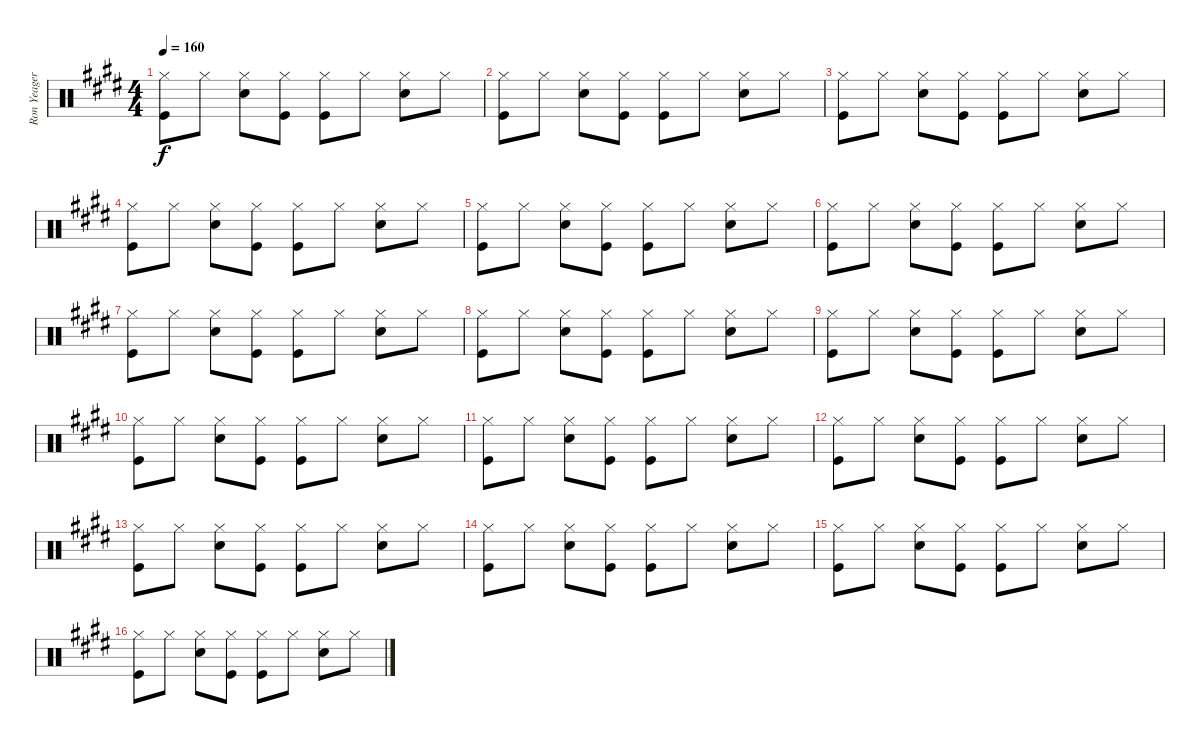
\track ("Ron Yeager Drums" "Ron Yeager") {instrument percussion}
\staff {score}
\articulation defaults
\ts (4 4)
\tempo 160
\clef neutral
\ks e
("Hi-Hat (closed)" "Kick (hit)").8{dy f} "Hi-Hat (closed)".8 ("Hi-Hat (closed)" "Snare (hit) 2").8 ("Hi-Hat (closed)" "Kick (hit)").8 ("Hi-Hat (closed)" "Kick (hit)").8 "Hi-Hat (closed)".8 ("Hi-Hat (closed)" "Snare (hit) 2").8 "Hi-Hat (closed)".8 |
("Hi-Hat (closed)" "Kick (hit)").8 "Hi-Hat (closed)".8 ("Hi-Hat (closed)" "Snare (hit) 2").8 ("Hi-Hat (closed)" "Kick (hit)").8 ("Hi-Hat (closed)" "Kick (hit)").8 "Hi-Hat (closed)".8 ("Hi-Hat (closed)" "Snare (hit) 2").8 "Hi-Hat (closed)".8 |
("Hi-Hat (closed)" "Kick (hit)").8 "Hi-Hat (closed)".8 ("Hi-Hat (closed)" "Snare (hit) 2").8 ("Hi-Hat (closed)" "Kick (hit)").8 ("Hi-Hat (closed)" "Kick (hit)").8 "Hi-Hat (closed)".8 ("Hi-Hat (closed)" "Snare (hit) 2").8 "Hi-Hat (closed)".8 |
("Hi-Hat (closed)" "Kick (hit)").8 "Hi-Hat (closed)".8 ("Hi-Hat (closed)" "Snare (hit) 2").8 ("Hi-Hat (closed)" "Kick (hit)").8 ("Hi-Hat (closed)" "Kick (hit)").8 "Hi-Hat (closed)".8 ("Hi-Hat (closed)" "Snare (hit) 2").8 "Hi-Hat (closed)".8 |
("Hi-Hat (closed)" "Kick (hit)").8 "Hi-Hat (closed)".8 ("Hi-Hat (closed)" "Snare (hit) 2").8 ("Hi-Hat (closed)" "Kick (hit)").8 ("Hi-Hat (closed)" "Kick (hit)").8 "Hi-Hat (closed)".8 ("Hi-Hat (closed)" "Snare (hit) 2").8 "Hi-Hat (closed)".8 |
("Hi-Hat (closed)" "Kick (hit)").8 "Hi-Hat (closed)".8 ("Hi-Hat (closed)" "Snare (hit) 2").8 ("Hi-Hat (closed)" "Kick (hit)").8 ("Hi-Hat (closed)" "Kick (hit)").8 "Hi-Hat (closed)".8 ("Hi-Hat (closed)" "Snare (hit) 2").8 "Hi-Hat (closed)".8 |
("Hi-Hat (closed)" "Kick (hit)").8 "Hi-Hat (closed)".8 ("Hi-Hat (closed)" "Snare (hit) 2").8 ("Hi-Hat (closed)" "Kick (hit)").8 ("Hi-Hat (closed)" "Kick (hit)").8 "Hi-Hat (closed)".8 ("Hi-Hat (closed)" "Snare (hit) 2").8 "Hi-Hat (closed)".8 |
("Hi-Hat (closed)" "Kick (hit)").8 "Hi-Hat (closed)".8 ("Hi-Hat (closed)" "Snare (hit) 2").8 ("Hi-Hat (closed)" "Kick (hit)").8 ("Hi-Hat (closed)" "Kick (hit)").8 "Hi-Hat (closed)".8 ("Hi-Hat (closed)" "Snare (hit) 2").8 "Hi-Hat (closed)".8 |
("Hi-Hat (closed)" "Kick (hit)").8 "Hi-Hat (closed)".8 ("Hi-Hat (closed)" "Snare (hit) 2").8 ("Hi-Hat (closed)" "Kick (hit)").8 ("Hi-Hat (closed)" "Kick (hit)").8 "Hi-Hat (closed)".8 ("Hi-Hat (closed)" "Snare (hit) 2").8 "Hi-Hat (closed)".8 |
("Hi-Hat (closed)" "Kick (hit)").8 "Hi-Hat (closed)".8 ("Hi-Hat (closed)" "Snare (hit) 2").8 ("Hi-Hat (closed)" "Kick (hit)").8 ("Hi-Hat (closed)" "Kick (hit)").8 "Hi-Hat (closed)".8 ("Hi-Hat (closed)" "Snare (hit) 2").8 "Hi-Hat (closed)".8 |
("Hi-Hat (closed)" "Kick (hit)").8 "Hi-Hat (closed)".8 ("Hi-Hat (closed)" "Snare (hit) 2").8 ("Hi-Hat (closed)" "Kick (hit)").8 ("Hi-Hat (closed)" "Kick (hit)").8 "Hi-Hat (closed)".8 ("Hi-Hat (closed)" "Snare (hit) 2").8 "Hi-Hat (closed)".8 |
("Hi-Hat (closed)" "Kick (hit)").8 "Hi-Hat (closed)".8 ("Hi-Hat (closed)" "Snare (hit) 2").8 ("Hi-Hat (closed)" "Kick (hit)").8 ("Hi-Hat (closed)" "Kick (hit)").8 "Hi-Hat (closed)".8 ("Hi-Hat (closed)" "Snare (hit) 2").8 "Hi-Hat (closed)".8 |
("Hi-Hat (closed)" "Kick (hit)").8 "Hi-Hat (closed)".8 ("Hi-Hat (closed)" "Snare (hit) 2").8 ("Hi-Hat (closed)" "Kick (hit)").8 ("Hi-Hat (closed)" "Kick (hit)").8 "Hi-Hat (closed)".8 ("Hi-Hat (closed)" "Snare (hit) 2").8 "Hi-Hat (closed)".8 |
("Hi-Hat (closed)" "Kick (hit)").8 "Hi-Hat (closed)".8 ("Hi-Hat (closed)" "Snare (hit) 2").8 ("Hi-Hat (closed)" "Kick (hit)").8 ("Hi-Hat (closed)" "Kick (hit)").8 "Hi-Hat (closed)".8 ("Hi-Hat (closed)" "Snare (hit) 2").8 "Hi-Hat (closed)".8 |
("Hi-Hat (closed)" "Kick (hit)").8 "Hi-Hat (closed)".8 ("Hi-Hat (closed)" "Snare (hit) 2").8 ("Hi-Hat (closed)" "Kick (hit)").8 ("Hi-Hat (closed)" "Kick (hit)").8 "Hi-Hat (closed)".8 ("Hi-Hat (closed)" "Snare (hit) 2").8 "Hi-Hat (closed)".8 |
("Hi-Hat (closed)" "Kick (hit)").8 "Hi-Hat (closed)".8 ("Hi-Hat (closed)" "Snare (hit) 2").8 ("Hi-Hat (closed)" "Kick (hit)").8 ("Hi-Hat (closed)" "Kick (hit)").8 "Hi-Hat (closed)".8 ("Hi-Hat (closed)" "Snare (hit) 2").8 "Hi-Hat (closed)".8
